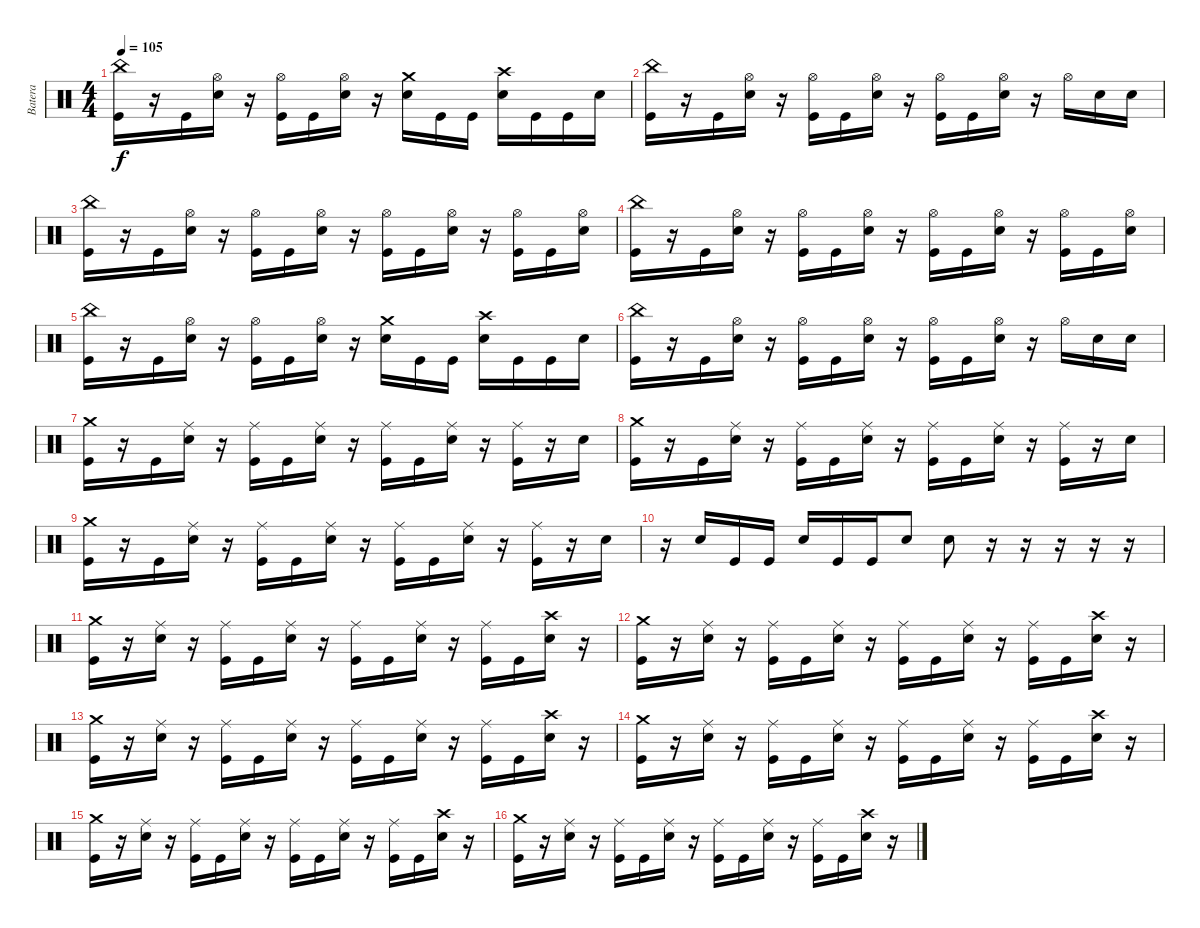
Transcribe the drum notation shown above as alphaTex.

\track ("Batera" "Batera") {instrument percussion}
\staff {score}
\articulation defaults
\ts (4 4)
\tempo 105
\clef neutral
\ks c
("China (hit)" "Kick (hit)").16{dy f} r.16 "Kick (hit)".16 ("Hi-Hat (open)" "Snare (hit) 2").16 r.16 ("Hi-Hat (open)" "Kick (hit)").16 "Kick (hit)".16 ("Hi-Hat (open)" "Snare (hit) 2").16 r.16 ("Crash medium (hit)" "Snare (hit) 2").16 "Kick (hit)".16 "Kick (hit)".16 ("Crash high (hit)" "Snare (hit) 2").16 "Kick (hit)".16 "Kick (hit)".16 "Snare (hit) 2".16 |
("China (hit)" "Kick (hit)").16 r.16 "Kick (hit)".16 ("Hi-Hat (open)" "Snare (hit) 2").16 r.16 ("Hi-Hat (open)" "Kick (hit)").16 "Kick (hit)".16 ("Hi-Hat (open)" "Snare (hit) 2").16 r.16 ("Hi-Hat (open)" "Kick (hit)").16 "Kick (hit)".16 ("Hi-Hat (open)" "Snare (hit) 2").16 r.16 "Hi-Hat (open)".16 "Snare (hit) 2".16 "Snare (hit) 2".16 |
("China (hit)" "Kick (hit)").16 r.16 "Kick (hit)".16 ("Hi-Hat (open)" "Snare (hit) 2").16 r.16 ("Hi-Hat (open)" "Kick (hit)").16 "Kick (hit)".16 ("Hi-Hat (open)" "Snare (hit) 2").16 r.16 ("Hi-Hat (open)" "Kick (hit)").16 "Kick (hit)".16 ("Hi-Hat (open)" "Snare (hit) 2").16 r.16 ("Hi-Hat (open)" "Kick (hit)").16 "Kick (hit)".16 ("Hi-Hat (open)" "Snare (hit) 2").16 |
("China (hit)" "Kick (hit)").16 r.16 "Kick (hit)".16 ("Hi-Hat (open)" "Snare (hit) 2").16 r.16 ("Hi-Hat (open)" "Kick (hit)").16 "Kick (hit)".16 ("Hi-Hat (open)" "Snare (hit) 2").16 r.16 ("Hi-Hat (open)" "Kick (hit)").16 "Kick (hit)".16 ("Hi-Hat (open)" "Snare (hit) 2").16 r.16 ("Hi-Hat (open)" "Kick (hit)").16 "Kick (hit)".16 ("Hi-Hat (open)" "Snare (hit) 2").16 |
("China (hit)" "Kick (hit)").16 r.16 "Kick (hit)".16 ("Hi-Hat (open)" "Snare (hit) 2").16 r.16 ("Hi-Hat (open)" "Kick (hit)").16 "Kick (hit)".16 ("Hi-Hat (open)" "Snare (hit) 2").16 r.16 ("Crash medium (hit)" "Snare (hit) 2").16 "Kick (hit)".16 "Kick (hit)".16 ("Crash high (hit)" "Snare (hit) 2").16 "Kick (hit)".16 "Kick (hit)".16 "Snare (hit) 2".16 |
("China (hit)" "Kick (hit)").16 r.16 "Kick (hit)".16 ("Hi-Hat (open)" "Snare (hit) 2").16 r.16 ("Hi-Hat (open)" "Kick (hit)").16 "Kick (hit)".16 ("Hi-Hat (open)" "Snare (hit) 2").16 r.16 ("Hi-Hat (open)" "Kick (hit)").16 "Kick (hit)".16 ("Hi-Hat (open)" "Snare (hit) 2").16 r.16 "Hi-Hat (open)".16 "Snare (hit) 2".16 "Snare (hit) 2".16 |
("Crash medium (hit)" "Kick (hit)").16 r.16 "Kick (hit)".16 ("Ride (middle)" "Snare (hit) 2").16 r.16 ("Ride (middle)" "Kick (hit)").16 "Kick (hit)".16 ("Ride (middle)" "Snare (hit) 2").16 r.16 ("Ride (middle)" "Kick (hit)").16 "Kick (hit)".16 ("Ride (middle)" "Snare (hit) 2").16 r.16 ("Ride (middle)" "Kick (hit)").16 r.16 "Snare (hit) 2".16 |
("Crash medium (hit)" "Kick (hit)").16 r.16 "Kick (hit)".16 ("Ride (middle)" "Snare (hit) 2").16 r.16 ("Ride (middle)" "Kick (hit)").16 "Kick (hit)".16 ("Ride (middle)" "Snare (hit) 2").16 r.16 ("Ride (middle)" "Kick (hit)").16 "Kick (hit)".16 ("Ride (middle)" "Snare (hit) 2").16 r.16 ("Ride (middle)" "Kick (hit)").16 r.16 "Snare (hit) 2".16 |
("Crash medium (hit)" "Kick (hit)").16 r.16 "Kick (hit)".16 ("Ride (middle)" "Snare (hit) 2").16 r.16 ("Ride (middle)" "Kick (hit)").16 "Kick (hit)".16 ("Ride (middle)" "Snare (hit) 2").16 r.16 ("Ride (middle)" "Kick (hit)").16 "Kick (hit)".16 ("Ride (middle)" "Snare (hit) 2").16 r.16 ("Ride (middle)" "Kick (hit)").16 r.16 "Snare (hit) 2".16 |
r.16 "Snare (hit) 2".16 "Kick (hit)".16 "Kick (hit)".16 "Snare (hit) 2".16 "Kick (hit)".16 "Kick (hit)".16 "Snare (hit) 2".8 "Snare (hit) 2".8 r.16 r.16 r.16 r.16 r.16 |
("Crash medium (hit)" "Kick (hit)").16 r.16 ("Ride (middle)" "Snare (hit) 2").16 r.16 ("Ride (middle)" "Kick (hit)").16 "Kick (hit)".16 ("Ride (middle)" "Snare (hit) 2").16 r.16 ("Ride (middle)" "Kick (hit)").16 "Kick (hit)".16 ("Ride (middle)" "Snare (hit) 2").16 r.16 ("Ride (middle)" "Kick (hit)").16 "Kick (hit)".16 ("Crash high (hit)" "Snare (hit) 2").16 r.16 |
("Crash medium (hit)" "Kick (hit)").16 r.16 ("Ride (middle)" "Snare (hit) 2").16 r.16 ("Ride (middle)" "Kick (hit)").16 "Kick (hit)".16 ("Ride (middle)" "Snare (hit) 2").16 r.16 ("Ride (middle)" "Kick (hit)").16 "Kick (hit)".16 ("Ride (middle)" "Snare (hit) 2").16 r.16 ("Ride (middle)" "Kick (hit)").16 "Kick (hit)".16 ("Crash high (hit)" "Snare (hit) 2").16 r.16 |
("Crash medium (hit)" "Kick (hit)").16 r.16 ("Ride (middle)" "Snare (hit) 2").16 r.16 ("Ride (middle)" "Kick (hit)").16 "Kick (hit)".16 ("Ride (middle)" "Snare (hit) 2").16 r.16 ("Ride (middle)" "Kick (hit)").16 "Kick (hit)".16 ("Ride (middle)" "Snare (hit) 2").16 r.16 ("Ride (middle)" "Kick (hit)").16 "Kick (hit)".16 ("Crash high (hit)" "Snare (hit) 2").16 r.16 |
("Crash medium (hit)" "Kick (hit)").16 r.16 ("Ride (middle)" "Snare (hit) 2").16 r.16 ("Ride (middle)" "Kick (hit)").16 "Kick (hit)".16 ("Ride (middle)" "Snare (hit) 2").16 r.16 ("Ride (middle)" "Kick (hit)").16 "Kick (hit)".16 ("Ride (middle)" "Snare (hit) 2").16 r.16 ("Ride (middle)" "Kick (hit)").16 "Kick (hit)".16 ("Crash high (hit)" "Snare (hit) 2").16 r.16 |
("Crash medium (hit)" "Kick (hit)").16 r.16 ("Ride (middle)" "Snare (hit) 2").16 r.16 ("Ride (middle)" "Kick (hit)").16 "Kick (hit)".16 ("Ride (middle)" "Snare (hit) 2").16 r.16 ("Ride (middle)" "Kick (hit)").16 "Kick (hit)".16 ("Ride (middle)" "Snare (hit) 2").16 r.16 ("Ride (middle)" "Kick (hit)").16 "Kick (hit)".16 ("Crash high (hit)" "Snare (hit) 2").16 r.16 |
("Crash medium (hit)" "Kick (hit)").16 r.16 ("Ride (middle)" "Snare (hit) 2").16 r.16 ("Ride (middle)" "Kick (hit)").16 "Kick (hit)".16 ("Ride (middle)" "Snare (hit) 2").16 r.16 ("Ride (middle)" "Kick (hit)").16 "Kick (hit)".16 ("Ride (middle)" "Snare (hit) 2").16 r.16 ("Ride (middle)" "Kick (hit)").16 "Kick (hit)".16 ("Crash high (hit)" "Snare (hit) 2").16 r.16
